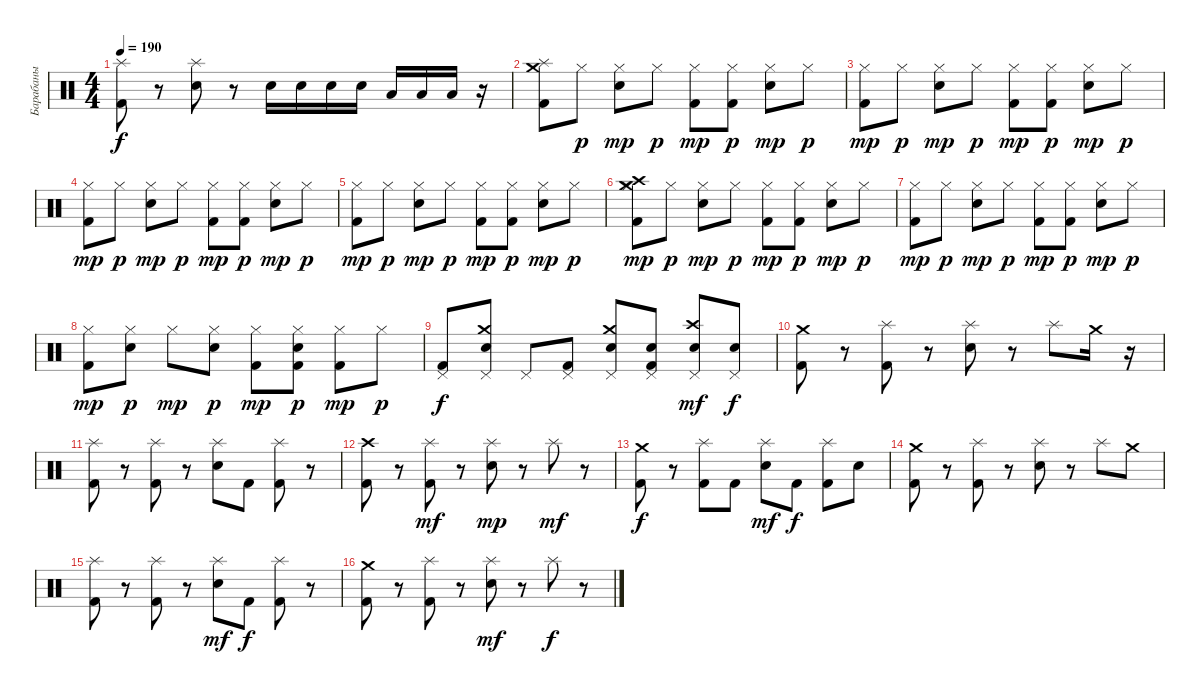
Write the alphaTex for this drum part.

\track ("Барабаны" "Барабаны") {instrument percussion}
\staff {score}
\articulation defaults
\ts (4 4)
\tempo 190
\clef neutral
\ks c
("Splash (hit)" "Kick (hit) 2").8{dy f} r.8 ("Splash (hit)" "Electric Snare (hit)").8 r.8 "Electric Snare (hit)".16 "Electric Snare (hit)".16 "Electric Snare (hit)".16 "Electric Snare (hit)".16 "Low Tom (hit)".16 "Low Tom (hit)".16 "Low Tom (hit)".16 r.16 |
("Splash (hit)" "Crash medium (hit)" "Kick (hit) 2").8 "Hi-Hat (closed)".8{dy p} ("Hi-Hat (closed)" "Electric Snare (hit)").8{dy mp} "Hi-Hat (closed)".8{dy p} ("Hi-Hat (closed)" "Kick (hit) 2").8{dy mp} ("Hi-Hat (closed)" "Kick (hit) 2").8{dy p} ("Hi-Hat (closed)" "Electric Snare (hit)").8{dy mp} "Hi-Hat (closed)".8{dy p} |
("Hi-Hat (closed)" "Kick (hit) 2").8{dy mp} "Hi-Hat (closed)".8{dy p} ("Hi-Hat (closed)" "Electric Snare (hit)").8{dy mp} "Hi-Hat (closed)".8{dy p} ("Hi-Hat (closed)" "Kick (hit) 2").8{dy mp} ("Hi-Hat (closed)" "Kick (hit) 2").8{dy p} ("Hi-Hat (closed)" "Electric Snare (hit)").8{dy mp} "Hi-Hat (closed)".8{dy p} |
("Hi-Hat (closed)" "Kick (hit) 2").8{dy mp} "Hi-Hat (closed)".8{dy p} ("Hi-Hat (closed)" "Electric Snare (hit)").8{dy mp} "Hi-Hat (closed)".8{dy p} ("Hi-Hat (closed)" "Kick (hit) 2").8{dy mp} ("Hi-Hat (closed)" "Kick (hit) 2").8{dy p} ("Hi-Hat (closed)" "Electric Snare (hit)").8{dy mp} "Hi-Hat (closed)".8{dy p} |
("Hi-Hat (closed)" "Kick (hit) 2").8{dy mp} "Hi-Hat (closed)".8{dy p} ("Hi-Hat (closed)" "Electric Snare (hit)").8{dy mp} "Hi-Hat (closed)".8{dy p} ("Hi-Hat (closed)" "Kick (hit) 2").8{dy mp} ("Hi-Hat (closed)" "Kick (hit) 2").8{dy p} ("Hi-Hat (closed)" "Electric Snare (hit)").8{dy mp} "Hi-Hat (closed)".8{dy p} |
("Crash medium (hit)" "Crash high (hit)" "Hi-Hat (closed)" "Kick (hit) 2").8{dy mp} "Hi-Hat (closed)".8{dy p} ("Hi-Hat (closed)" "Electric Snare (hit)").8{dy mp} "Hi-Hat (closed)".8{dy p} ("Hi-Hat (closed)" "Kick (hit) 2").8{dy mp} ("Hi-Hat (closed)" "Kick (hit) 2").8{dy p} ("Hi-Hat (closed)" "Electric Snare (hit)").8{dy mp} "Hi-Hat (closed)".8{dy p} |
("Hi-Hat (closed)" "Kick (hit) 2").8{dy mp} "Hi-Hat (closed)".8{dy p} ("Hi-Hat (closed)" "Electric Snare (hit)").8{dy mp} "Hi-Hat (closed)".8{dy p} ("Hi-Hat (closed)" "Kick (hit) 2").8{dy mp} ("Hi-Hat (closed)" "Kick (hit) 2").8{dy p} ("Hi-Hat (closed)" "Electric Snare (hit)").8{dy mp} "Hi-Hat (closed)".8{dy p} |
("Hi-Hat (closed)" "Kick (hit) 2").8{dy mp} ("Electric Snare (hit)" "Hi-Hat (closed)").8{dy p} "Hi-Hat (closed)".8{dy mp} ("Electric Snare (hit)" "Hi-Hat (closed)").8{dy p} ("Hi-Hat (closed)" "Kick (hit) 2").8{dy mp} ("Kick (hit) 2" "Hi-Hat (closed)" "Electric Snare (hit)").8{dy p} ("Kick (hit) 2" "Hi-Hat (closed)").8{dy mp} "Hi-Hat (closed)".8{dy p} |
("Pedal Hi-Hat (hit)" "Kick (hit) 2").8{dy f} ("Pedal Hi-Hat (hit)" "Crash medium (hit)" "Electric Snare (hit)").8 "Pedal Hi-Hat (hit)".8 ("Pedal Hi-Hat (hit)" "Kick (hit) 2").8 ("Pedal Hi-Hat (hit)" "Crash medium (hit)" "Electric Snare (hit)").8 ("Pedal Hi-Hat (hit)" "Electric Snare (hit)" "Kick (hit) 2").8 ("Pedal Hi-Hat (hit)" "Crash high (hit)" "Electric Snare (hit)").8{dy mf} ("Pedal Hi-Hat (hit)" "Electric Snare (hit)").8{dy f} |
("Crash medium (hit)" "Kick (hit) 2").8 r.8 ("Splash (hit)" "Kick (hit) 2").8 r.8 ("Splash (hit)" "Electric Snare (hit)").8 r.8 "Splash (hit)".8 "Crash medium (hit)".16 r.16 |
("Splash (hit)" "Kick (hit) 2").8 r.8 ("Splash (hit)" "Kick (hit) 2").8 r.8 ("Splash (hit)" "Electric Snare (hit)").8 "Kick (hit) 2".8 ("Splash (hit)" "Kick (hit) 2").8 r.8 |
("Crash high (hit)" "Kick (hit) 2").8 r.8 ("Splash (hit)" "Kick (hit) 2").8{dy mf} r.8 ("Splash (hit)" "Electric Snare (hit)").8{dy mp} r.8 "Splash (hit)".8{dy mf} r.8 |
("Crash medium (hit)" "Kick (hit) 2").8{dy f} r.8 ("Splash (hit)" "Kick (hit) 2").8 "Kick (hit) 2".8 ("Splash (hit)" "Electric Snare (hit)").8{dy mf} "Kick (hit) 2".8{dy f} ("Splash (hit)" "Kick (hit) 2").8 "Electric Snare (hit)".8 |
("Crash medium (hit)" "Kick (hit) 2").8 r.8 ("Splash (hit)" "Kick (hit) 2").8 r.8 ("Splash (hit)" "Electric Snare (hit)").8 r.8 "Splash (hit)".8 "Crash medium (hit)".8 |
("Splash (hit)" "Kick (hit) 2").8 r.8 ("Splash (hit)" "Kick (hit) 2").8 r.8 ("Splash (hit)" "Electric Snare (hit)").8{dy mf} "Kick (hit) 2".8{dy f} ("Splash (hit)" "Kick (hit) 2").8 r.8 |
("Crash medium (hit)" "Kick (hit) 2").8 r.8 ("Splash (hit)" "Kick (hit) 2").8 r.8 ("Splash (hit)" "Electric Snare (hit)").8{dy mf} r.8 "Splash (hit)".8{dy f} r.8
